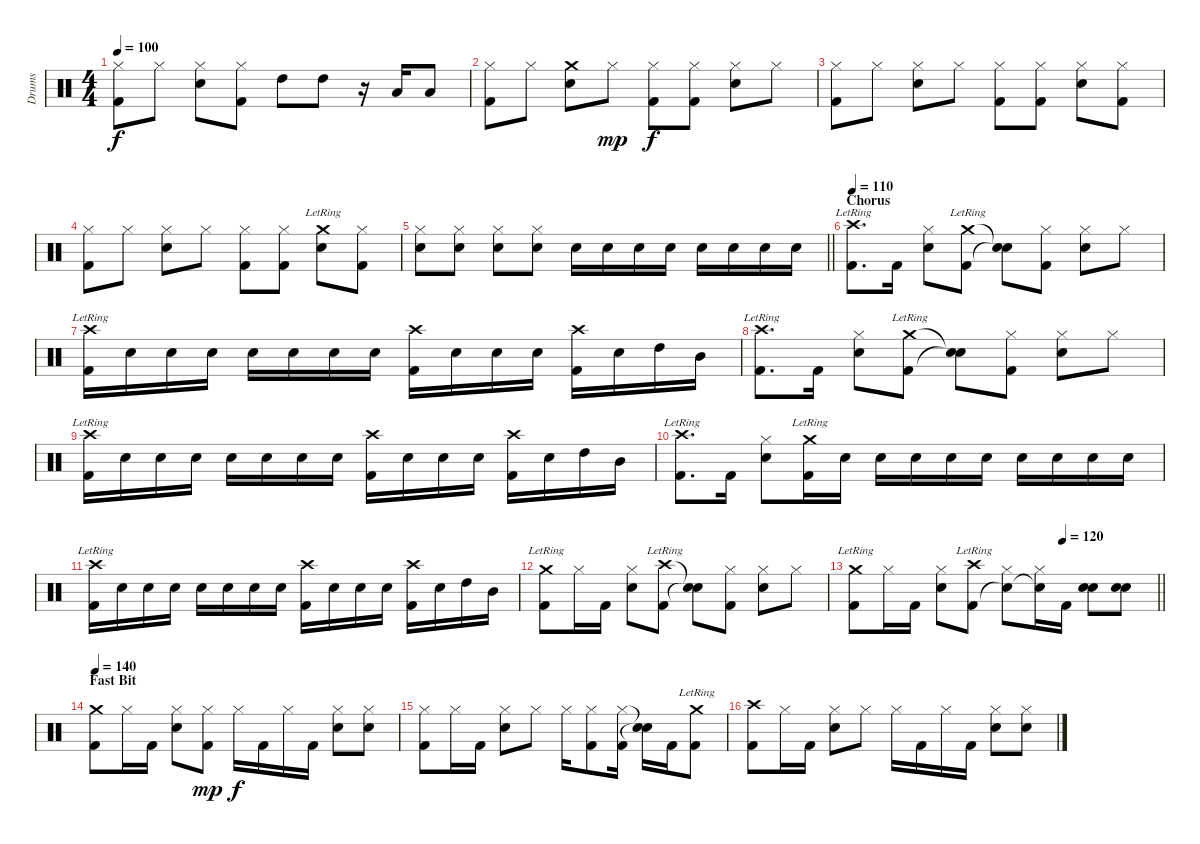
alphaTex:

\track ("Drums" "Drums") {instrument percussion}
\staff {score}
\articulation defaults
\ts (4 4)
\tempo 100
\clef neutral
\ks c
("Hi-Hat (closed)" "Kick (hit) 2").8{dy f} "Hi-Hat (closed)".8 ("Hi-Hat (closed)" "Snare (hit) 2").8 ("Hi-Hat (closed)" "Kick (hit) 2").8 "High Tom (hit)".8 "High Tom (hit)".8 r.16 "Low Tom (hit)".16 "Low Tom (hit)".8 |
("Hi-Hat (closed)" "Kick (hit) 2").8 "Hi-Hat (closed)".8 ("Crash medium (hit)" "Snare (hit) 2").8 "Hi-Hat (closed)".8{dy mp} ("Hi-Hat (closed)" "Kick (hit) 2").8{dy f} ("Hi-Hat (closed)" "Kick (hit) 2").8 ("Hi-Hat (closed)" "Snare (hit) 2").8 "Hi-Hat (closed)".8 |
("Hi-Hat (closed)" "Kick (hit) 2").8 "Hi-Hat (closed)".8 ("Hi-Hat (closed)" "Snare (hit) 2").8 "Hi-Hat (closed)".8 ("Hi-Hat (closed)" "Kick (hit) 2").8 ("Hi-Hat (closed)" "Kick (hit) 2").8 ("Hi-Hat (closed)" "Snare (hit) 2").8 ("Hi-Hat (closed)" "Kick (hit) 2").8 |
("Hi-Hat (closed)" "Kick (hit) 2").8 "Hi-Hat (closed)".8 ("Hi-Hat (closed)" "Snare (hit) 2").8 "Hi-Hat (closed)".8 ("Hi-Hat (closed)" "Kick (hit) 2").8 ("Hi-Hat (closed)" "Kick (hit) 2").8 ("Crash medium (hit)"{lr} "Snare (hit) 2").8 ("Hi-Hat (closed)" "Kick (hit) 2").8 |
\barLineRight lightlight
("Hi-Hat (closed)" "Snare (hit) 2").8 ("Hi-Hat (closed)" "Snare (hit) 2").8 ("Hi-Hat (closed)" "Snare (hit) 2").8 ("Hi-Hat (closed)" "Snare (hit) 2").8 "Snare (hit) 2".16 "Snare (hit) 2".16 "Snare (hit) 2".16 "Snare (hit) 2".16 "Snare (hit) 2".16 "Snare (hit) 2".16 "Snare (hit) 2".16 "Snare (hit) 2".16 |
\section ("" "Chorus")
\tempo 110
("Crash high (hit)"{lr} "Kick (hit) 2").8{d} "Kick (hit) 2".16 ("Hi-Hat (closed)" "Snare (hit) 2").8 ("Crash medium (hit)"{lr} "Kick (hit) 2").8 ("Snare (hit)"{t} "Snare (hit)"{t}).8 ("Hi-Hat (closed)" "Kick (hit) 2").8 ("Hi-Hat (closed)" "Snare (hit) 2").8 "Hi-Hat (closed)".8 |
("Crash high (hit)"{lr} "Kick (hit) 2").16 "Snare (hit) 2".16 "Snare (hit) 2".16 "Snare (hit) 2".16 "Snare (hit) 2".16 "Snare (hit) 2".16 "Snare (hit) 2".16 "Snare (hit) 2".16 ("Crash high (hit)" "Kick (hit) 2").16 "Snare (hit) 2".16 "Snare (hit) 2".16 "Snare (hit) 2".16 ("Crash high (hit)" "Kick (hit) 2").16 "Snare (hit) 2".16 "High Tom (hit)".16 "Mid Tom (hit)".16 |
("Crash high (hit)"{lr} "Kick (hit) 2").8{d} "Kick (hit) 2".16 ("Hi-Hat (closed)" "Snare (hit) 2").8 ("Crash medium (hit)"{lr} "Kick (hit) 2").8 ("Snare (hit)"{t} "Snare (hit)"{t}).8 ("Hi-Hat (closed)" "Kick (hit) 2").8 ("Hi-Hat (closed)" "Snare (hit) 2").8 "Hi-Hat (closed)".8 |
("Crash high (hit)"{lr} "Kick (hit) 2").16 "Snare (hit) 2".16 "Snare (hit) 2".16 "Snare (hit) 2".16 "Snare (hit) 2".16 "Snare (hit) 2".16 "Snare (hit) 2".16 "Snare (hit) 2".16 ("Crash high (hit)" "Kick (hit) 2").16 "Snare (hit) 2".16 "Snare (hit) 2".16 "Snare (hit) 2".16 ("Crash high (hit)" "Kick (hit) 2").16 "Snare (hit) 2".16 "High Tom (hit)".16 "Mid Tom (hit)".16 |
("Crash high (hit)"{lr} "Kick (hit) 2").8{d} "Kick (hit) 2".16 ("Hi-Hat (closed)" "Snare (hit) 2").8 ("Crash medium (hit)"{lr} "Kick (hit) 2").16 "Snare (hit) 2".16 "Snare (hit) 2".16 "Snare (hit) 2".16 "Snare (hit) 2".16 "Snare (hit) 2".16 "Snare (hit) 2".16 "Snare (hit) 2".16 "Snare (hit) 2".16 "Snare (hit) 2".16 |
("Crash high (hit)"{lr} "Kick (hit) 2").16 "Snare (hit) 2".16 "Snare (hit) 2".16 "Snare (hit) 2".16 "Snare (hit) 2".16 "Snare (hit) 2".16 "Snare (hit) 2".16 "Snare (hit) 2".16 ("Crash high (hit)" "Kick (hit) 2").16 "Snare (hit) 2".16 "Snare (hit) 2".16 "Snare (hit) 2".16 ("Crash high (hit)" "Kick (hit) 2").16 "Snare (hit) 2".16 "High Tom (hit)".16 "Mid Tom (hit)".16 |
("Crash medium (hit)"{lr} "Kick (hit) 2").8 "Hi-Hat (closed)".16 "Kick (hit) 2".16 ("Hi-Hat (closed)" "Snare (hit) 2").8 ("Crash high (hit)"{lr} "Kick (hit) 2").8 ("Snare (hit)"{t} "Snare (hit)"{t}).8 ("Hi-Hat (closed)" "Kick (hit) 2").8 ("Hi-Hat (closed)" "Snare (hit) 2").8 "Hi-Hat (closed)".8 |
\tempo (120 0.6875)
\barLineRight lightlight
("Crash medium (hit)"{lr} "Kick (hit) 2").8 "Hi-Hat (closed)".16 "Kick (hit) 2".16 ("Hi-Hat (closed)" "Snare (hit) 2").8 ("Crash high (hit)"{lr} "Kick (hit) 2").8 ("Hi-Hat (closed)" "Snare (hit)"{t}).8 ("Hi-Hat (closed)" "Snare (hit)"{t}).16 "Kick (hit) 2".16 ("Electric Snare (hit)" "Snare (hit) 2").8{bd 60} ("Electric Snare (hit)" "Snare (hit) 2").8{bd 60} |
\section ("" "Fast Bit")
\tempo 140
("Crash medium (hit)" "Kick (hit) 2").8 "Hi-Hat (closed)".16 "Kick (hit) 2".16 ("Hi-Hat (closed)" "Snare (hit) 2").8 ("Hi-Hat (closed)" "Kick (hit) 2").8{dy mp} "Hi-Hat (closed)".16{dy f} "Kick (hit) 2".16 "Hi-Hat (closed)".16 "Kick (hit) 2".16 ("Hi-Hat (closed)" "Snare (hit) 2").8 ("Hi-Hat (closed)" "Snare (hit) 2").8 |
("Hi-Hat (closed)" "Kick (hit) 2").8 "Hi-Hat (closed)".16 "Kick (hit) 2".16 ("Hi-Hat (closed)" "Snare (hit) 2").8 "Hi-Hat (closed)".8 "Hi-Hat (closed)".16 ("Hi-Hat (closed)" "Kick (hit) 2").8 ("Hi-Hat (closed)" "Kick (hit) 2").16 ("Snare (hit)"{t} "Snare (hit)"{t}).16 "Kick (hit) 2".16 ("Crash medium (hit)"{lr} "Kick (hit) 2").8 |
("Crash high (hit)" "Kick (hit) 2").8 "Hi-Hat (closed)".16 "Kick (hit) 2".16 ("Hi-Hat (closed)" "Snare (hit) 2").8 "Hi-Hat (closed)".8 "Hi-Hat (closed)".16 "Kick (hit) 2".16 "Hi-Hat (closed)".16 "Kick (hit) 2".16 ("Hi-Hat (closed)" "Snare (hit) 2").8 ("Hi-Hat (closed)" "Snare (hit) 2").8
